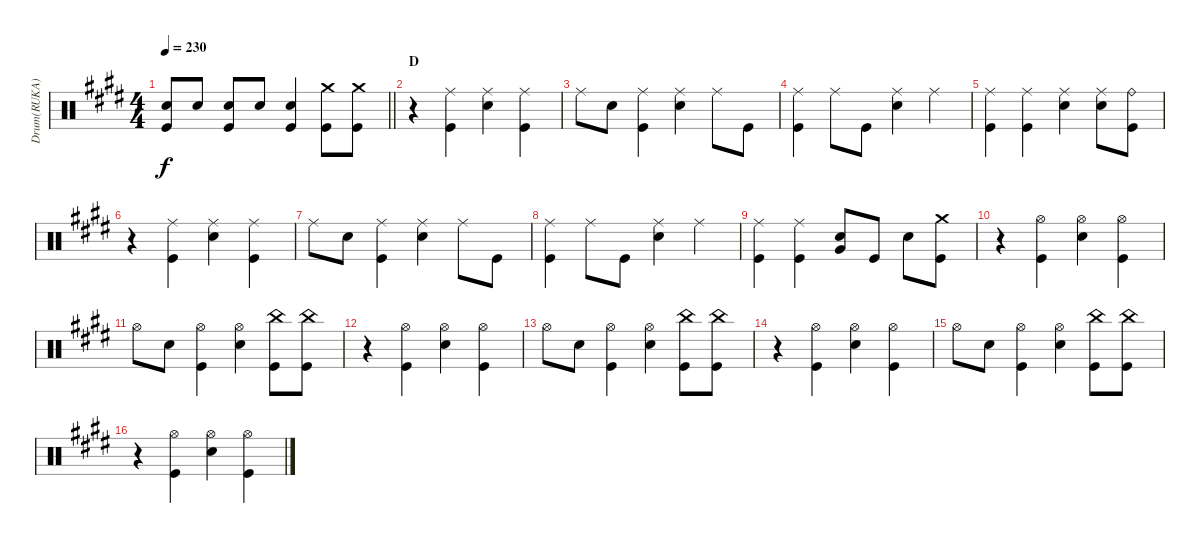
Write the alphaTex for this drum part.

\track ("Drum(RUKA)" "Drum(RUKA)") {instrument percussion}
\staff {score}
\articulation defaults
\ts (4 4)
\tempo 230
\clef neutral
\barLineRight lightlight
\ks e
("Electric Snare (hit)" "Kick (hit)").8{dy f} "Electric Snare (hit)".8 ("Electric Snare (hit)" "Kick (hit)").8 "Electric Snare (hit)".8 ("Electric Snare (hit)" "Kick (hit)").4 ("Crash medium (hit)" "Kick (hit)").8 ("Crash medium (hit)" "Kick (hit)").8 |
\section ("" "D")
r.4 ("Ride (middle)" "Kick (hit)").4 ("Ride (middle)" "Electric Snare (hit)").4 ("Ride (middle)" "Kick (hit)").4 |
"Ride (middle)".8 "Electric Snare (hit)".8 ("Ride (middle)" "Kick (hit)").4 ("Ride (middle)" "Electric Snare (hit)").4 "Ride (middle)".8 "Kick (hit)".8 |
("Ride (middle)" "Kick (hit)").4 "Ride (middle)".8 "Kick (hit)".8 ("Ride (middle)" "Electric Snare (hit)").4 "Ride (middle)".4 |
("Ride (middle)" "Kick (hit)").4 ("Ride (middle)" "Kick (hit)").4 ("Ride (middle)" "Electric Snare (hit)").4 ("Ride (middle)" "Electric Snare (hit)").8 ("Ride (bell)" "Kick (hit)").8 |
r.4 ("Ride (middle)" "Kick (hit)").4 ("Ride (middle)" "Electric Snare (hit)").4 ("Ride (middle)" "Kick (hit)").4 |
"Ride (middle)".8 "Electric Snare (hit)".8 ("Ride (middle)" "Kick (hit)").4 ("Ride (middle)" "Electric Snare (hit)").4 "Ride (middle)".8 "Kick (hit)".8 |
("Ride (middle)" "Kick (hit)").4 "Ride (middle)".8 "Kick (hit)".8 ("Ride (middle)" "Electric Snare (hit)").4 "Ride (middle)".4 |
("Ride (middle)" "Kick (hit)").4 ("Ride (middle)" "Kick (hit)").4 ("Electric Snare (hit)" "Very Low Tom (hit)").8 "Kick (hit)".8 "Electric Snare (hit)".8 ("Crash medium (hit)" "Kick (hit)").8 |
r.4 ("Hi-Hat (open)" "Kick (hit)").4 ("Hi-Hat (open)" "Electric Snare (hit)").4 ("Hi-Hat (open)" "Kick (hit)").4 |
"Hi-Hat (open)".8 "Electric Snare (hit)".8 ("Hi-Hat (open)" "Kick (hit)").4 ("Hi-Hat (open)" "Electric Snare (hit)").4 ("China (hit)" "Kick (hit)").8 ("China (hit)" "Kick (hit)").8 |
r.4 ("Hi-Hat (open)" "Kick (hit)").4 ("Hi-Hat (open)" "Electric Snare (hit)").4 ("Hi-Hat (open)" "Kick (hit)").4 |
"Hi-Hat (open)".8 "Electric Snare (hit)".8 ("Hi-Hat (open)" "Kick (hit)").4 ("Hi-Hat (open)" "Electric Snare (hit)").4 ("China (hit)" "Kick (hit)").8 ("China (hit)" "Kick (hit)").8 |
r.4 ("Hi-Hat (open)" "Kick (hit)").4 ("Hi-Hat (open)" "Electric Snare (hit)").4 ("Hi-Hat (open)" "Kick (hit)").4 |
"Hi-Hat (open)".8 "Electric Snare (hit)".8 ("Hi-Hat (open)" "Kick (hit)").4 ("Hi-Hat (open)" "Electric Snare (hit)").4 ("China (hit)" "Kick (hit)").8 ("China (hit)" "Kick (hit)").8 |
r.4 ("Hi-Hat (open)" "Kick (hit)").4 ("Hi-Hat (open)" "Electric Snare (hit)").4 ("Hi-Hat (open)" "Kick (hit)").4
